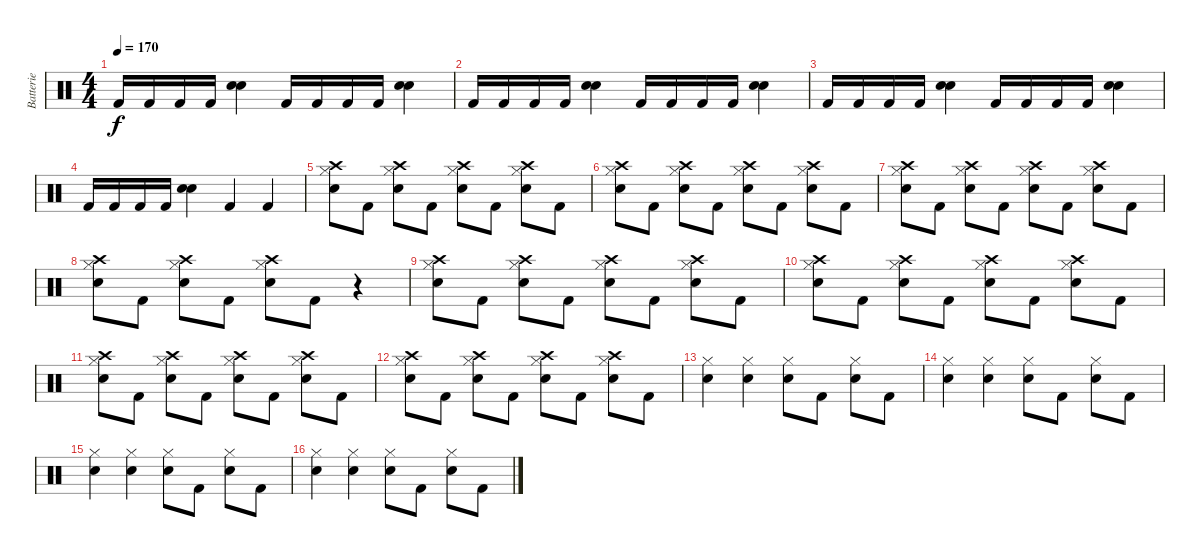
\track ("Batterie" "Batterie") {instrument percussion}
\staff {score}
\articulation defaults
\ts (4 4)
\section ("" "")
\tempo 170
\clef neutral
\ks c "Kick (hit) 2".16{dy f} "Kick (hit) 2".16 "Kick (hit) 2".16 "Kick (hit) 2".16
("Snare (hit) 2" "Snare (hit) 2").4 "Kick (hit) 2".16 "Kick (hit) 2".16 "Kick (hit) 2".16 "Kick (hit) 2".16 ("Snare (hit) 2" "Snare (hit) 2").4 |
"Kick (hit) 2".16 "Kick (hit) 2".16 "Kick (hit) 2".16 "Kick (hit) 2".16 ("Snare (hit) 2" "Snare (hit) 2").4 "Kick (hit) 2".16 "Kick (hit) 2".16 "Kick (hit) 2".16 "Kick (hit) 2".16 ("Snare (hit) 2" "Snare (hit) 2").4 |
"Kick (hit) 2".16 "Kick (hit) 2".16 "Kick (hit) 2".16 "Kick (hit) 2".16 ("Snare (hit) 2" "Snare (hit) 2").4 "Kick (hit) 2".16 "Kick (hit) 2".16 "Kick (hit) 2".16 "Kick (hit) 2".16 ("Snare (hit) 2" "Snare (hit) 2").4 |
"Kick (hit) 2".16 "Kick (hit) 2".16 "Kick (hit) 2".16 "Kick (hit) 2".16 ("Snare (hit) 2" "Snare (hit) 2").4 "Kick (hit) 2".4 "Kick (hit) 2".4 |
\section ("" "")
("Hi-Hat (closed)" "Snare (hit) 2" "Crash high (hit)").8 "Kick (hit) 2".8 ("Hi-Hat (closed)" "Snare (hit) 2" "Crash high (hit)").8 "Kick (hit) 2".8 ("Hi-Hat (closed)" "Snare (hit) 2" "Crash high (hit)").8 "Kick (hit) 2".8 ("Hi-Hat (closed)" "Snare (hit) 2" "Crash high (hit)").8 "Kick (hit) 2".8 |
("Hi-Hat (closed)" "Snare (hit) 2" "Crash high (hit)").8 "Kick (hit) 2".8 ("Hi-Hat (closed)" "Snare (hit) 2" "Crash high (hit)").8 "Kick (hit) 2".8 ("Hi-Hat (closed)" "Snare (hit) 2" "Crash high (hit)").8 "Kick (hit) 2".8 ("Hi-Hat (closed)" "Snare (hit) 2" "Crash high (hit)").8 "Kick (hit) 2".8 |
("Hi-Hat (closed)" "Snare (hit) 2" "Crash high (hit)").8 "Kick (hit) 2".8 ("Hi-Hat (closed)" "Snare (hit) 2" "Crash high (hit)").8 "Kick (hit) 2".8 ("Hi-Hat (closed)" "Snare (hit) 2" "Crash high (hit)").8 "Kick (hit) 2".8 ("Hi-Hat (closed)" "Snare (hit) 2" "Crash high (hit)").8 "Kick (hit) 2".8 |
("Hi-Hat (closed)" "Snare (hit) 2" "Crash high (hit)").8 "Kick (hit) 2".8 ("Hi-Hat (closed)" "Snare (hit) 2" "Crash high (hit)").8 "Kick (hit) 2".8 ("Hi-Hat (closed)" "Snare (hit) 2" "Crash high (hit)").8 "Kick (hit) 2".8 r.4 |
("Hi-Hat (closed)" "Snare (hit) 2" "Crash high (hit)").8 "Kick (hit) 2".8 ("Hi-Hat (closed)" "Snare (hit) 2" "Crash high (hit)").8 "Kick (hit) 2".8 ("Hi-Hat (closed)" "Snare (hit) 2" "Crash high (hit)").8 "Kick (hit) 2".8 ("Hi-Hat (closed)" "Snare (hit) 2" "Crash high (hit)").8 "Kick (hit) 2".8 |
("Hi-Hat (closed)" "Snare (hit) 2" "Crash high (hit)").8 "Kick (hit) 2".8 ("Hi-Hat (closed)" "Snare (hit) 2" "Crash high (hit)").8 "Kick (hit) 2".8 ("Hi-Hat (closed)" "Snare (hit) 2" "Crash high (hit)").8 "Kick (hit) 2".8 ("Hi-Hat (closed)" "Snare (hit) 2" "Crash high (hit)").8 "Kick (hit) 2".8 |
("Hi-Hat (closed)" "Snare (hit) 2" "Crash high (hit)").8 "Kick (hit) 2".8 ("Hi-Hat (closed)" "Snare (hit) 2" "Crash high (hit)").8 "Kick (hit) 2".8 ("Hi-Hat (closed)" "Snare (hit) 2" "Crash high (hit)").8 "Kick (hit) 2".8 ("Hi-Hat (closed)" "Snare (hit) 2" "Crash high (hit)").8 "Kick (hit) 2".8 |
("Hi-Hat (closed)" "Snare (hit) 2" "Crash high (hit)").8 "Kick (hit) 2".8 ("Hi-Hat (closed)" "Snare (hit) 2" "Crash high (hit)").8 "Kick (hit) 2".8 ("Hi-Hat (closed)" "Snare (hit) 2" "Crash high (hit)").8 "Kick (hit) 2".8 ("Hi-Hat (closed)" "Snare (hit) 2" "Crash high (hit)").8 "Kick (hit) 2".8 |
\section ("" "")
("Hi-Hat (closed)" "Snare (hit) 2").4 ("Hi-Hat (closed)" "Snare (hit) 2").4 ("Hi-Hat (closed)" "Snare (hit) 2").8 "Kick (hit) 2".8 ("Hi-Hat (closed)" "Snare (hit) 2").8 "Kick (hit) 2".8 |
("Hi-Hat (closed)" "Snare (hit) 2").4 ("Hi-Hat (closed)" "Snare (hit) 2").4 ("Hi-Hat (closed)" "Snare (hit) 2").8 "Kick (hit) 2".8 ("Hi-Hat (closed)" "Snare (hit) 2").8 "Kick (hit) 2".8 |
("Hi-Hat (closed)" "Snare (hit) 2").4 ("Hi-Hat (closed)" "Snare (hit) 2").4 ("Hi-Hat (closed)" "Snare (hit) 2").8 "Kick (hit) 2".8 ("Hi-Hat (closed)" "Snare (hit) 2").8 "Kick (hit) 2".8 |
("Hi-Hat (closed)" "Snare (hit) 2").4 ("Hi-Hat (closed)" "Snare (hit) 2").4 ("Hi-Hat (closed)" "Snare (hit) 2").8 "Kick (hit) 2".8 ("Hi-Hat (closed)" "Snare (hit) 2").8 "Kick (hit) 2".8
